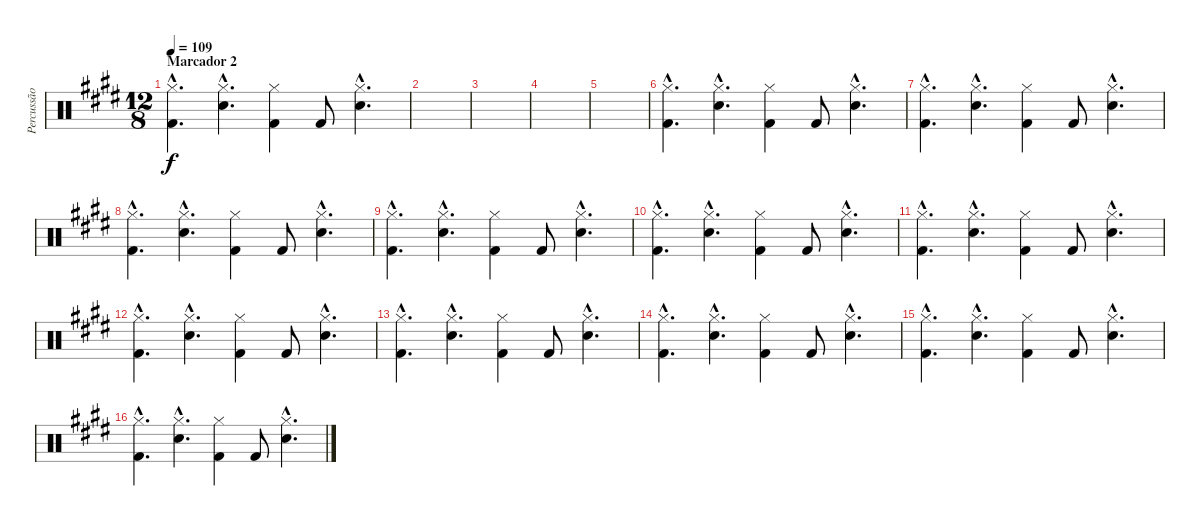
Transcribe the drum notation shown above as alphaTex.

\track ("Percussão" "Percussão") {instrument percussion}
\staff {score}
\articulation defaults
\ts (12 8)
\section ("" "Marcador 2")
\tempo 109
\clef neutral
\ks e
("Hi-Hat (closed)"{hac} "Kick (hit) 2"{hac}).4{d dy f} ("Hi-Hat (closed)"{hac} "Electric Snare (hit)"{hac}).4{d} ("Hi-Hat (closed)" "Kick (hit) 2").4 "Kick (hit) 2".8 ("Hi-Hat (closed)"{hac} "Electric Snare (hit)"{hac}).4{d} |
|
|
|
|
("Hi-Hat (closed)"{hac} "Kick (hit) 2"{hac}).4{d} ("Hi-Hat (closed)"{hac} "Electric Snare (hit)"{hac}).4{d} ("Hi-Hat (closed)" "Kick (hit) 2").4 "Kick (hit) 2".8 ("Hi-Hat (closed)"{hac} "Electric Snare (hit)"{hac}).4{d} |
("Hi-Hat (closed)"{hac} "Kick (hit) 2"{hac}).4{d} ("Hi-Hat (closed)"{hac} "Electric Snare (hit)"{hac}).4{d} ("Hi-Hat (closed)" "Kick (hit) 2").4 "Kick (hit) 2".8 ("Hi-Hat (closed)"{hac} "Electric Snare (hit)"{hac}).4{d} |
("Hi-Hat (closed)"{hac} "Kick (hit) 2"{hac}).4{d} ("Hi-Hat (closed)"{hac} "Electric Snare (hit)"{hac}).4{d} ("Hi-Hat (closed)" "Kick (hit) 2").4 "Kick (hit) 2".8 ("Hi-Hat (closed)"{hac} "Electric Snare (hit)"{hac}).4{d} |
("Hi-Hat (closed)"{hac} "Kick (hit) 2"{hac}).4{d} ("Hi-Hat (closed)"{hac} "Electric Snare (hit)"{hac}).4{d} ("Hi-Hat (closed)" "Kick (hit) 2").4 "Kick (hit) 2".8 ("Hi-Hat (closed)"{hac} "Electric Snare (hit)"{hac}).4{d} |
("Hi-Hat (closed)"{hac} "Kick (hit) 2"{hac}).4{d} ("Hi-Hat (closed)"{hac} "Electric Snare (hit)"{hac}).4{d} ("Hi-Hat (closed)" "Kick (hit) 2").4 "Kick (hit) 2".8 ("Hi-Hat (closed)"{hac} "Electric Snare (hit)"{hac}).4{d} |
("Hi-Hat (closed)"{hac} "Kick (hit) 2"{hac}).4{d} ("Hi-Hat (closed)"{hac} "Electric Snare (hit)"{hac}).4{d} ("Hi-Hat (closed)" "Kick (hit) 2").4 "Kick (hit) 2".8 ("Hi-Hat (closed)"{hac} "Electric Snare (hit)"{hac}).4{d} |
("Hi-Hat (closed)"{hac} "Kick (hit) 2"{hac}).4{d} ("Hi-Hat (closed)"{hac} "Electric Snare (hit)"{hac}).4{d} ("Hi-Hat (closed)" "Kick (hit) 2").4 "Kick (hit) 2".8 ("Hi-Hat (closed)"{hac} "Electric Snare (hit)"{hac}).4{d} |
("Hi-Hat (closed)"{hac} "Kick (hit) 2"{hac}).4{d} ("Hi-Hat (closed)"{hac} "Electric Snare (hit)"{hac}).4{d} ("Hi-Hat (closed)" "Kick (hit) 2").4 "Kick (hit) 2".8 ("Hi-Hat (closed)"{hac} "Electric Snare (hit)"{hac}).4{d} |
("Hi-Hat (closed)"{hac} "Kick (hit) 2"{hac}).4{d} ("Hi-Hat (closed)"{hac} "Electric Snare (hit)"{hac}).4{d} ("Hi-Hat (closed)" "Kick (hit) 2").4 "Kick (hit) 2".8 ("Hi-Hat (closed)"{hac} "Electric Snare (hit)"{hac}).4{d} |
("Hi-Hat (closed)"{hac} "Kick (hit) 2"{hac}).4{d} ("Hi-Hat (closed)"{hac} "Electric Snare (hit)"{hac}).4{d} ("Hi-Hat (closed)" "Kick (hit) 2").4 "Kick (hit) 2".8 ("Hi-Hat (closed)"{hac} "Electric Snare (hit)"{hac}).4{d} |
("Hi-Hat (closed)"{hac} "Kick (hit) 2"{hac}).4{d} ("Hi-Hat (closed)"{hac} "Electric Snare (hit)"{hac}).4{d} ("Hi-Hat (closed)" "Kick (hit) 2").4 "Kick (hit) 2".8 ("Hi-Hat (closed)"{hac} "Electric Snare (hit)"{hac}).4{d}
